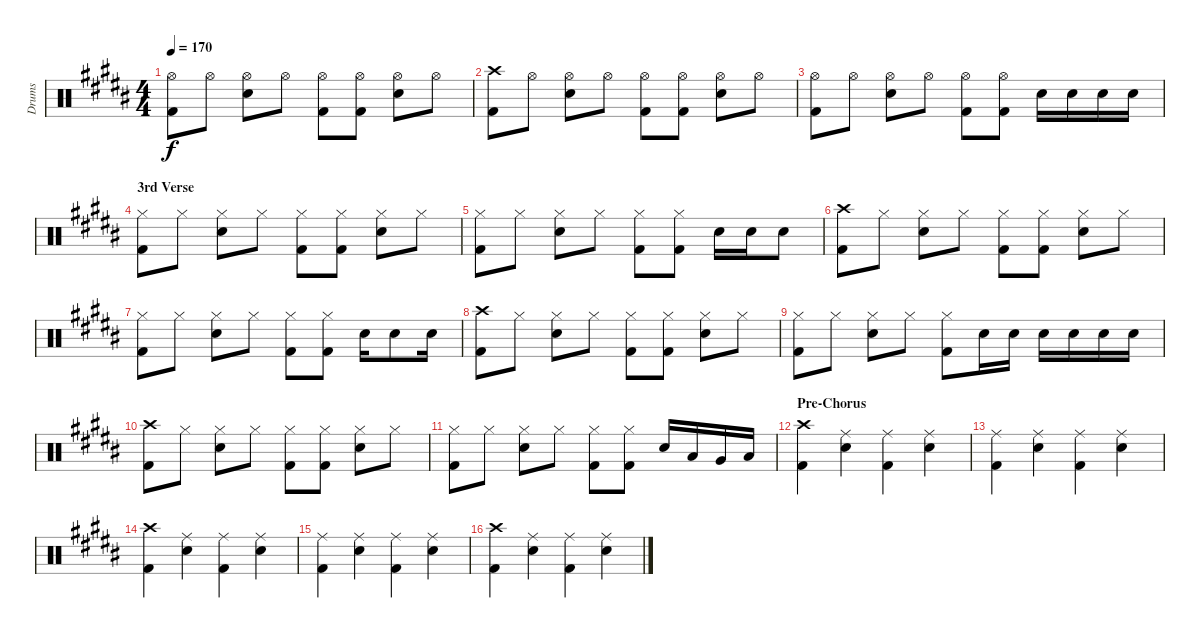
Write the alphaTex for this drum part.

\track ("Drums" "Drums") {instrument percussion}
\staff {score}
\articulation defaults
\ts (4 4)
\tempo 170
\clef neutral
\ks b
("Hi-Hat (open)" "Kick (hit) 2").8{dy f} "Hi-Hat (open)".8 ("Hi-Hat (open)" "Electric Snare (hit)").8 "Hi-Hat (open)".8 ("Hi-Hat (open)" "Kick (hit) 2").8 ("Hi-Hat (open)" "Kick (hit) 2").8 ("Hi-Hat (open)" "Electric Snare (hit)").8 "Hi-Hat (open)".8 |
("Crash high (hit)" "Kick (hit) 2").8 "Hi-Hat (open)".8 ("Hi-Hat (open)" "Electric Snare (hit)").8 "Hi-Hat (open)".8 ("Hi-Hat (open)" "Kick (hit) 2").8 ("Hi-Hat (open)" "Kick (hit) 2").8 ("Hi-Hat (open)" "Electric Snare (hit)").8 "Hi-Hat (open)".8 |
("Hi-Hat (open)" "Kick (hit) 2").8 "Hi-Hat (open)".8 ("Hi-Hat (open)" "Electric Snare (hit)").8 "Hi-Hat (open)".8 ("Hi-Hat (open)" "Kick (hit) 2").8 ("Hi-Hat (open)" "Kick (hit) 2").8 "Electric Snare (hit)".16 "Electric Snare (hit)".16 "Electric Snare (hit)".16 "Electric Snare (hit)".16 |
\section ("" "3rd Verse")
("Hi-Hat (closed)" "Kick (hit) 2").8 "Hi-Hat (closed)".8 ("Hi-Hat (closed)" "Electric Snare (hit)").8 "Hi-Hat (closed)".8 ("Hi-Hat (closed)" "Kick (hit) 2").8 ("Hi-Hat (closed)" "Kick (hit) 2").8 ("Hi-Hat (closed)" "Electric Snare (hit)").8 "Hi-Hat (closed)".8 |
("Hi-Hat (closed)" "Kick (hit) 2").8 "Hi-Hat (closed)".8 ("Hi-Hat (closed)" "Electric Snare (hit)").8 "Hi-Hat (closed)".8 ("Hi-Hat (closed)" "Kick (hit) 2").8 ("Hi-Hat (closed)" "Kick (hit) 2").8 "Electric Snare (hit)".16 "Electric Snare (hit)".16 "Electric Snare (hit)".8 |
("Crash high (hit)" "Kick (hit) 2").8 "Hi-Hat (closed)".8 ("Hi-Hat (closed)" "Electric Snare (hit)").8 "Hi-Hat (closed)".8 ("Hi-Hat (closed)" "Kick (hit) 2").8 ("Hi-Hat (closed)" "Kick (hit) 2").8 ("Hi-Hat (closed)" "Electric Snare (hit)").8 "Hi-Hat (closed)".8 |
("Hi-Hat (closed)" "Kick (hit) 2").8 "Hi-Hat (closed)".8 ("Hi-Hat (closed)" "Electric Snare (hit)").8 "Hi-Hat (closed)".8 ("Hi-Hat (closed)" "Kick (hit) 2").8 ("Hi-Hat (closed)" "Kick (hit) 2").8 "Electric Snare (hit)".16 "Electric Snare (hit)".8 "Electric Snare (hit)".16 |
("Crash high (hit)" "Kick (hit) 2").8 "Hi-Hat (closed)".8 ("Hi-Hat (closed)" "Electric Snare (hit)").8 "Hi-Hat (closed)".8 ("Hi-Hat (closed)" "Kick (hit) 2").8 ("Hi-Hat (closed)" "Kick (hit) 2").8 ("Hi-Hat (closed)" "Electric Snare (hit)").8 "Hi-Hat (closed)".8 |
("Hi-Hat (closed)" "Kick (hit) 2").8 "Hi-Hat (closed)".8 ("Hi-Hat (closed)" "Electric Snare (hit)").8 "Hi-Hat (closed)".8 ("Hi-Hat (closed)" "Kick (hit) 2").8 "Electric Snare (hit)".16 "Electric Snare (hit)".16 "Electric Snare (hit)".16 "Electric Snare (hit)".16 "Electric Snare (hit)".16 "Electric Snare (hit)".16 |
("Crash high (hit)" "Kick (hit) 2").8 "Hi-Hat (closed)".8 ("Hi-Hat (closed)" "Electric Snare (hit)").8 "Hi-Hat (closed)".8 ("Hi-Hat (closed)" "Kick (hit) 2").8 ("Hi-Hat (closed)" "Kick (hit) 2").8 ("Hi-Hat (closed)" "Electric Snare (hit)").8 "Hi-Hat (closed)".8 |
("Hi-Hat (closed)" "Kick (hit) 2").8 "Hi-Hat (closed)".8 ("Hi-Hat (closed)" "Electric Snare (hit)").8 "Hi-Hat (closed)".8 ("Hi-Hat (closed)" "Kick (hit) 2").8 ("Hi-Hat (closed)" "Kick (hit) 2").8 "Electric Snare (hit)".16 "Low Tom (hit)".16 "Very Low Tom (hit)".16 "Low Floor Tom (hit)".16 |
\section ("" "Pre-Chorus")
("Crash high (hit)" "Kick (hit) 2").4 ("Ride (middle)" "Electric Snare (hit)").4 ("Ride (middle)" "Kick (hit) 2").4 ("Ride (middle)" "Electric Snare (hit)").4 |
("Ride (middle)" "Kick (hit) 2").4 ("Ride (middle)" "Electric Snare (hit)").4 ("Ride (middle)" "Kick (hit) 2").4 ("Ride (middle)" "Electric Snare (hit)").4 |
("Crash high (hit)" "Kick (hit) 2").4 ("Ride (middle)" "Electric Snare (hit)").4 ("Ride (middle)" "Kick (hit) 2").4 ("Ride (middle)" "Electric Snare (hit)").4 |
("Ride (middle)" "Kick (hit) 2").4 ("Ride (middle)" "Electric Snare (hit)").4 ("Ride (middle)" "Kick (hit) 2").4 ("Ride (middle)" "Electric Snare (hit)").4 |
("Crash high (hit)" "Kick (hit) 2").4 ("Ride (middle)" "Electric Snare (hit)").4 ("Ride (middle)" "Kick (hit) 2").4 ("Ride (middle)" "Electric Snare (hit)").4
